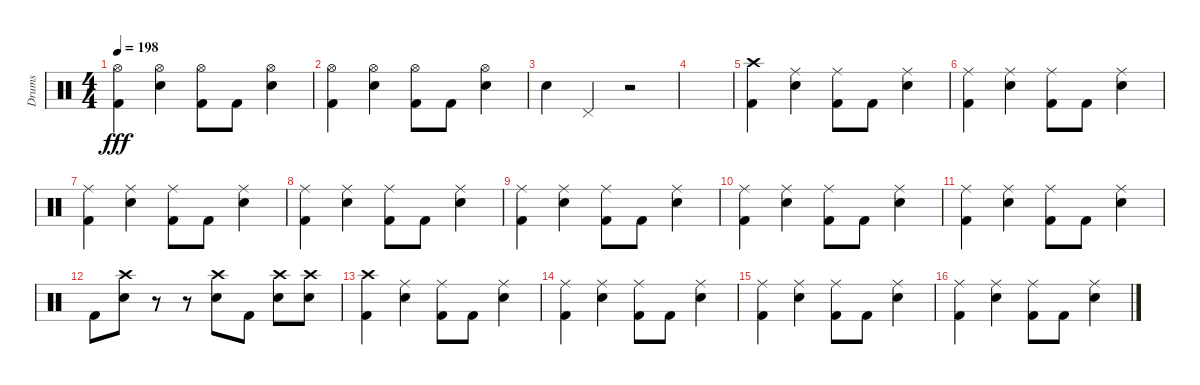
\track ("Drums" "Drums") {instrument percussion}
\staff {score}
\articulation defaults
\ts (4 4)
\tempo 198
\clef neutral
\ks c
("Hi-Hat (open)" "Kick (hit) 2").4{dy fff} ("Hi-Hat (open)" "Electric Snare (hit)").4 ("Hi-Hat (open)" "Kick (hit) 2").8 "Kick (hit) 2".8 ("Hi-Hat (open)" "Electric Snare (hit)").4 |
("Hi-Hat (open)" "Kick (hit) 2").4 ("Hi-Hat (open)" "Electric Snare (hit)").4 ("Hi-Hat (open)" "Kick (hit) 2").8 "Kick (hit) 2".8 ("Hi-Hat (open)" "Electric Snare (hit)").4 |
"Electric Snare (hit)".4 "Pedal Hi-Hat (hit)".4 r.2 |
|
("Crash high (hit)" "Kick (hit) 2").4 ("Ride (middle)" "Electric Snare (hit)").4 ("Ride (middle)" "Kick (hit) 2").8 "Kick (hit) 2".8 ("Ride (middle)" "Electric Snare (hit)").4 |
("Ride (middle)" "Kick (hit) 2").4 ("Ride (middle)" "Electric Snare (hit)").4 ("Ride (middle)" "Kick (hit) 2").8 "Kick (hit) 2".8 ("Ride (middle)" "Electric Snare (hit)").4 |
("Ride (middle)" "Kick (hit) 2").4 ("Ride (middle)" "Electric Snare (hit)").4 ("Ride (middle)" "Kick (hit) 2").8 "Kick (hit) 2".8 ("Ride (middle)" "Electric Snare (hit)").4 |
("Ride (middle)" "Kick (hit) 2").4 ("Ride (middle)" "Electric Snare (hit)").4 ("Ride (middle)" "Kick (hit) 2").8 "Kick (hit) 2".8 ("Ride (middle)" "Electric Snare (hit)").4 |
("Ride (middle)" "Kick (hit) 2").4 ("Ride (middle)" "Electric Snare (hit)").4 ("Ride (middle)" "Kick (hit) 2").8 "Kick (hit) 2".8 ("Ride (middle)" "Electric Snare (hit)").4 |
("Ride (middle)" "Kick (hit) 2").4 ("Ride (middle)" "Electric Snare (hit)").4 ("Ride (middle)" "Kick (hit) 2").8 "Kick (hit) 2".8 ("Ride (middle)" "Electric Snare (hit)").4 |
("Ride (middle)" "Kick (hit) 2").4 ("Ride (middle)" "Electric Snare (hit)").4 ("Ride (middle)" "Kick (hit) 2").8 "Kick (hit) 2".8 ("Ride (middle)" "Electric Snare (hit)").4 |
"Kick (hit) 2".8 ("Crash high (hit)" "Electric Snare (hit)").8 r.8 r.8 ("Crash high (hit)" "Electric Snare (hit)").8 "Kick (hit) 2".8 ("Crash high (hit)" "Electric Snare (hit)").8 ("Crash high (hit)" "Electric Snare (hit)").8 |
("Crash high (hit)" "Kick (hit) 2").4 ("Ride (middle)" "Electric Snare (hit)").4 ("Ride (middle)" "Kick (hit) 2").8 "Kick (hit) 2".8 ("Ride (middle)" "Electric Snare (hit)").4 |
("Ride (middle)" "Kick (hit) 2").4 ("Ride (middle)" "Electric Snare (hit)").4 ("Ride (middle)" "Kick (hit) 2").8 "Kick (hit) 2".8 ("Ride (middle)" "Electric Snare (hit)").4 |
("Ride (middle)" "Kick (hit) 2").4 ("Ride (middle)" "Electric Snare (hit)").4 ("Ride (middle)" "Kick (hit) 2").8 "Kick (hit) 2".8 ("Ride (middle)" "Electric Snare (hit)").4 |
("Ride (middle)" "Kick (hit) 2").4 ("Ride (middle)" "Electric Snare (hit)").4 ("Ride (middle)" "Kick (hit) 2").8 "Kick (hit) 2".8 ("Ride (middle)" "Electric Snare (hit)").4
